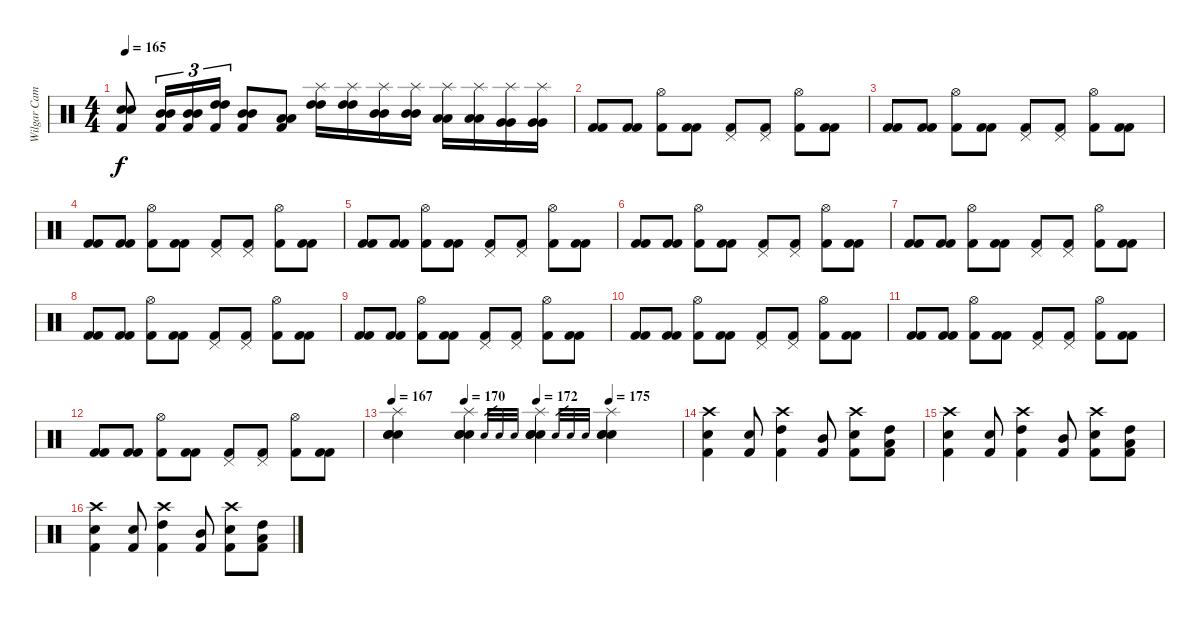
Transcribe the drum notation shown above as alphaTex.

\track ("Wilgar Campbell" "Wilgar Cam") {instrument percussion}
\staff {score}
\articulation defaults
\ts (4 4)
\tempo 165
\clef neutral
\ks c
("Electric Snare (hit)" "Snare (hit) 2" "Kick (hit) 2").8{dy f} ("Mid Tom (hit)" "Mid Tom (hit)" "Kick (hit) 2").16{tu (3 2)} ("Mid Tom (hit)" "Mid Tom (hit)" "Kick (hit) 2").16{tu (3 2)} ("High Tom (hit)" "High Tom (hit)" "Kick (hit) 2").16{tu (3 2)} ("Mid Tom (hit)" "Mid Tom (hit)" "Kick (hit) 2").8 ("Low Tom (hit)" "Low Tom (hit)" "Kick (hit) 2").8 ("Splash (hit)" "High Tom (hit)" "High Tom (hit)").16 ("Splash (hit)" "High Tom (hit)" "High Tom (hit)").16 ("Splash (hit)" "Mid Tom (hit)" "Mid Tom (hit)").16 ("Splash (hit)" "Mid Tom (hit)" "Mid Tom (hit)").16 ("Splash (hit)" "Low Tom (hit)" "Low Tom (hit)").16 ("Splash (hit)" "Low Tom (hit)" "Low Tom (hit)").16 ("Splash (hit)" "Very Low Tom (hit)" "Very Low Tom (hit)").16 ("Splash (hit)" "Very Low Tom (hit)" "Very Low Tom (hit)").16 |
("Kick (hit) 2" "Kick (hit) 2").8 ("Kick (hit) 2" "Kick (hit) 2").8 ("Hi-Hat (open)" "Kick (hit) 2").8 ("Kick (hit) 2" "Kick (hit) 2").8 ("Pedal Hi-Hat (hit)" "Kick (hit) 2").8 ("Pedal Hi-Hat (hit)" "Kick (hit) 2").8 ("Hi-Hat (open)" "Kick (hit) 2").8 ("Kick (hit) 2" "Kick (hit) 2").8 |
("Kick (hit) 2" "Kick (hit) 2").8 ("Kick (hit) 2" "Kick (hit) 2").8 ("Hi-Hat (open)" "Kick (hit) 2").8 ("Kick (hit) 2" "Kick (hit) 2").8 ("Pedal Hi-Hat (hit)" "Kick (hit) 2").8 ("Pedal Hi-Hat (hit)" "Kick (hit) 2").8 ("Hi-Hat (open)" "Kick (hit) 2").8 ("Kick (hit) 2" "Kick (hit) 2").8 |
("Kick (hit) 2" "Kick (hit) 2").8 ("Kick (hit) 2" "Kick (hit) 2").8 ("Hi-Hat (open)" "Kick (hit) 2").8 ("Kick (hit) 2" "Kick (hit) 2").8 ("Pedal Hi-Hat (hit)" "Kick (hit) 2").8 ("Pedal Hi-Hat (hit)" "Kick (hit) 2").8 ("Hi-Hat (open)" "Kick (hit) 2").8 ("Kick (hit) 2" "Kick (hit) 2").8 |
("Kick (hit) 2" "Kick (hit) 2").8 ("Kick (hit) 2" "Kick (hit) 2").8 ("Hi-Hat (open)" "Kick (hit) 2").8 ("Kick (hit) 2" "Kick (hit) 2").8 ("Pedal Hi-Hat (hit)" "Kick (hit) 2").8 ("Pedal Hi-Hat (hit)" "Kick (hit) 2").8 ("Hi-Hat (open)" "Kick (hit) 2").8 ("Kick (hit) 2" "Kick (hit) 2").8 |
("Kick (hit) 2" "Kick (hit) 2").8 ("Kick (hit) 2" "Kick (hit) 2").8 ("Hi-Hat (open)" "Kick (hit) 2").8 ("Kick (hit) 2" "Kick (hit) 2").8 ("Pedal Hi-Hat (hit)" "Kick (hit) 2").8 ("Pedal Hi-Hat (hit)" "Kick (hit) 2").8 ("Hi-Hat (open)" "Kick (hit) 2").8 ("Kick (hit) 2" "Kick (hit) 2").8 |
("Kick (hit) 2" "Kick (hit) 2").8 ("Kick (hit) 2" "Kick (hit) 2").8 ("Hi-Hat (open)" "Kick (hit) 2").8 ("Kick (hit) 2" "Kick (hit) 2").8 ("Pedal Hi-Hat (hit)" "Kick (hit) 2").8 ("Pedal Hi-Hat (hit)" "Kick (hit) 2").8 ("Hi-Hat (open)" "Kick (hit) 2").8 ("Kick (hit) 2" "Kick (hit) 2").8 |
("Kick (hit) 2" "Kick (hit) 2").8 ("Kick (hit) 2" "Kick (hit) 2").8 ("Hi-Hat (open)" "Kick (hit) 2").8 ("Kick (hit) 2" "Kick (hit) 2").8 ("Pedal Hi-Hat (hit)" "Kick (hit) 2").8 ("Pedal Hi-Hat (hit)" "Kick (hit) 2").8 ("Hi-Hat (open)" "Kick (hit) 2").8 ("Kick (hit) 2" "Kick (hit) 2").8 |
("Kick (hit) 2" "Kick (hit) 2").8 ("Kick (hit) 2" "Kick (hit) 2").8 ("Hi-Hat (open)" "Kick (hit) 2").8 ("Kick (hit) 2" "Kick (hit) 2").8 ("Pedal Hi-Hat (hit)" "Kick (hit) 2").8 ("Pedal Hi-Hat (hit)" "Kick (hit) 2").8 ("Hi-Hat (open)" "Kick (hit) 2").8 ("Kick (hit) 2" "Kick (hit) 2").8 |
("Kick (hit) 2" "Kick (hit) 2").8 ("Kick (hit) 2" "Kick (hit) 2").8 ("Hi-Hat (open)" "Kick (hit) 2").8 ("Kick (hit) 2" "Kick (hit) 2").8 ("Pedal Hi-Hat (hit)" "Kick (hit) 2").8 ("Pedal Hi-Hat (hit)" "Kick (hit) 2").8 ("Hi-Hat (open)" "Kick (hit) 2").8 ("Kick (hit) 2" "Kick (hit) 2").8 |
("Kick (hit) 2" "Kick (hit) 2").8 ("Kick (hit) 2" "Kick (hit) 2").8 ("Hi-Hat (open)" "Kick (hit) 2").8 ("Kick (hit) 2" "Kick (hit) 2").8 ("Pedal Hi-Hat (hit)" "Kick (hit) 2").8 ("Pedal Hi-Hat (hit)" "Kick (hit) 2").8 ("Hi-Hat (open)" "Kick (hit) 2").8 ("Kick (hit) 2" "Kick (hit) 2").8 |
("Kick (hit) 2" "Kick (hit) 2").8 ("Kick (hit) 2" "Kick (hit) 2").8 ("Hi-Hat (open)" "Kick (hit) 2").8 ("Kick (hit) 2" "Kick (hit) 2").8 ("Pedal Hi-Hat (hit)" "Kick (hit) 2").8{volume 13} ("Pedal Hi-Hat (hit)" "Kick (hit) 2").8 ("Hi-Hat (open)" "Kick (hit) 2").8 ("Kick (hit) 2" "Kick (hit) 2").8 |
\tempo 167
\tempo (170 0.25)
\tempo (172 0.5)
\tempo (175 0.75)
("Splash (hit)" "Electric Snare (hit)" "Electric Snare (hit)" "Snare (hit) 2").4 ("Splash (hit)" "Electric Snare (hit)" "Electric Snare (hit)" "Snare (hit) 2").4 "Snare (hit) 2".32{gr} "Snare (hit) 2".32{gr} "Snare (hit) 2".32{gr} ("Splash (hit)" "Electric Snare (hit)" "Electric Snare (hit)" "Snare (hit) 2").4 "Snare (hit) 2".32{gr} "Snare (hit) 2".32{gr} "Electric Snare (hit)".32{gr} ("Splash (hit)" "Electric Snare (hit)" "Electric Snare (hit)" "Snare (hit) 2").4 |
("Crash high (hit)" "Electric Snare (hit)" "Kick (hit) 2").4 ("Snare (hit) 2" "Kick (hit) 2").8 ("Crash high (hit)" "High Tom (hit)" "Kick (hit) 2").4 ("Mid Tom (hit)" "Kick (hit) 2").8 ("Crash high (hit)" "Electric Snare (hit)" "Kick (hit) 2").8 ("High Tom (hit)" "Kick (hit) 2" "Low Tom (hit)").8 |
("Crash high (hit)" "Electric Snare (hit)" "Kick (hit) 2").4 ("Snare (hit) 2" "Kick (hit) 2").8 ("Crash high (hit)" "High Tom (hit)" "Kick (hit) 2").4 ("Mid Tom (hit)" "Kick (hit) 2").8 ("Crash high (hit)" "Electric Snare (hit)" "Kick (hit) 2").8 ("High Tom (hit)" "Kick (hit) 2" "Low Tom (hit)").8 |
("Crash high (hit)" "Electric Snare (hit)" "Kick (hit) 2").4 ("Snare (hit) 2" "Kick (hit) 2").8 ("Crash high (hit)" "High Tom (hit)" "Kick (hit) 2").4 ("Mid Tom (hit)" "Kick (hit) 2").8 ("Crash high (hit)" "Electric Snare (hit)" "Kick (hit) 2").8 ("High Tom (hit)" "Kick (hit) 2" "Low Tom (hit)").8
